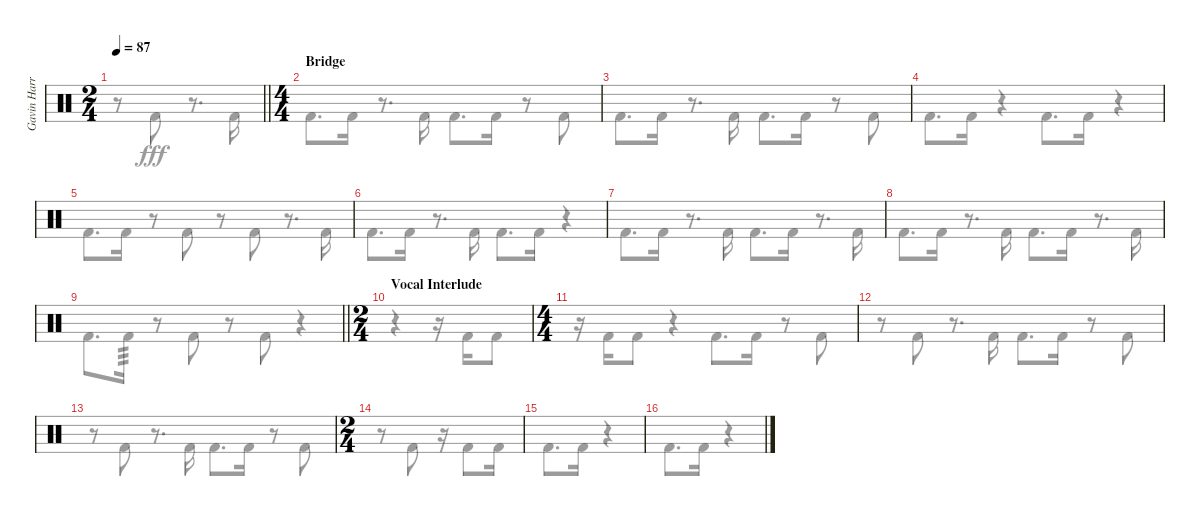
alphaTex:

\track ("Gavin Harrison Bass Pedal" "Gavin Harr") {instrument percussion}
\staff {score}
\articulation defaults
\voice
\ts (2 4)
\tempo 87
\clef neutral
\barLineRight lightlight
\ks aminor
|
\ts (4 4)
\section ("" "Bridge")
|
|
|
|
|
|
|
\barLineRight lightlight
|
\ts (2 4)
\section ("" "Vocal Interlude")
|
\ts (4 4)
|
|
|
\ts (2 4)
|
|
\voice
\clef neutral
\barLineRight lightlight
\ks aminor
r.8{dy fff} "Kick (hit) 2".8 r.8{d} "Kick (hit) 2".16 |
"Kick (hit) 2".8{d} "Kick (hit) 2".16 r.8{d} "Kick (hit) 2".16 "Kick (hit) 2".8{d} "Kick (hit) 2".16 r.8 "Kick (hit) 2".8 |
"Kick (hit) 2".8{d} "Kick (hit) 2".16 r.8{d} "Kick (hit) 2".16 "Kick (hit) 2".8{d} "Kick (hit) 2".16 r.8 "Kick (hit) 2".8 |
"Kick (hit) 2".8{d} "Kick (hit) 2".16 r.4 "Kick (hit) 2".8{d} "Kick (hit) 2".16 r.4 |
"Kick (hit) 2".8{d} "Kick (hit) 2".16 r.8 "Kick (hit) 2".8 r.8 "Kick (hit) 2".8 r.8{d} "Kick (hit) 2".16 |
"Kick (hit) 2".8{d} "Kick (hit) 2".16 r.8{d} "Kick (hit) 2".16 "Kick (hit) 2".8{d} "Kick (hit) 2".16 r.4 |
"Kick (hit) 2".8{d} "Kick (hit) 2".16 r.8{d} "Kick (hit) 2".16 "Kick (hit) 2".8{d} "Kick (hit) 2".16 r.8{d} "Kick (hit) 2".16 |
"Kick (hit) 2".8{d} "Kick (hit) 2".16 r.8{d} "Kick (hit) 2".16 "Kick (hit) 2".8{d} "Kick (hit) 2".16 r.8{d} "Kick (hit) 2".16 |
\barLineRight lightlight "Kick (hit) 2".8{d} "Kick (hit) 2".16{tp 3}
r.8 "Kick (hit) 2".8 r.8 "Kick (hit) 2".8 r.4 |
r.4 r.16 "Kick (hit) 2".16 "Kick (hit) 2".8 |
r.16 "Kick (hit) 2".16 "Kick (hit) 2".8 r.4 "Kick (hit) 2".8{d} "Kick (hit) 2".16 r.8 "Kick (hit) 2".8 |
r.8 "Kick (hit) 2".8 r.8{d} "Kick (hit) 2".16 "Kick (hit) 2".8{d} "Kick (hit) 2".16 r.8 "Kick (hit) 2".8 |
r.8 "Kick (hit) 2".8 r.8{d} "Kick (hit) 2".16 "Kick (hit) 2".8{d} "Kick (hit) 2".16 r.8 "Kick (hit) 2".8 |
r.8 "Kick (hit) 2".8 r.16 "Kick (hit) 2".8 "Kick (hit) 2".16 |
"Kick (hit) 2".8{d} "Kick (hit) 2".16 r.4 |
"Kick (hit) 2".8{d} "Kick (hit) 2".16 r.4
